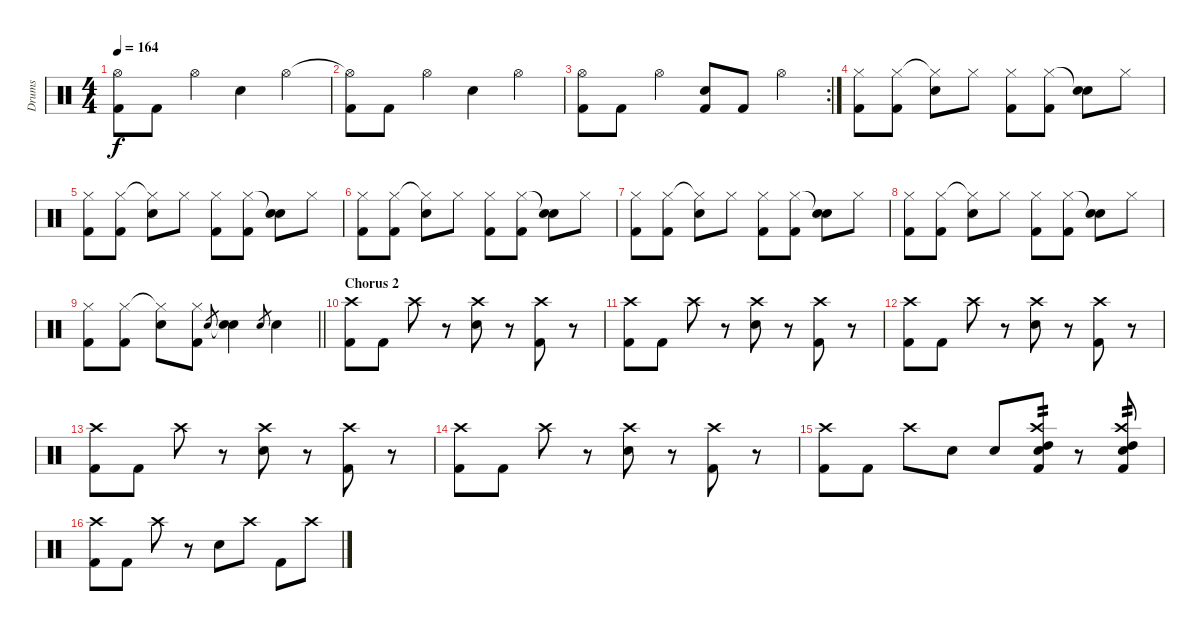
\track ("Drums" "Drums") {instrument percussion}
\staff {score}
\articulation defaults
\ts (4 4)
\tempo 164
\clef neutral
\ks c
("Hi-Hat (open)"{t} "Kick (hit) 2").8{dy f} "Kick (hit) 2".8 "Hi-Hat (open)".4 "Snare (hit) 2".4 "Hi-Hat (open)".4 |
("Hi-Hat (open)"{t} "Kick (hit) 2").8 "Kick (hit) 2".8 "Hi-Hat (open)".4 "Snare (hit) 2".4 "Hi-Hat (open)".4 |
\rc 2
("Hi-Hat (open)" "Kick (hit) 2").8 "Kick (hit) 2".8 "Hi-Hat (open)".4 ("Snare (hit) 2" "Kick (hit) 2").8 "Kick (hit) 2".8 "Hi-Hat (open)".4 |
("Hi-Hat (closed)" "Kick (hit) 2").8 ("Hi-Hat (closed)" "Kick (hit) 2").8 ("Hi-Hat (closed)"{t} "Snare (hit) 2").8 "Hi-Hat (closed)".8 ("Hi-Hat (closed)" "Kick (hit) 2").8 ("Hi-Hat (closed)" "Kick (hit) 2").8 ("Snare (hit)"{t} "Snare (hit) 2").8 "Hi-Hat (closed)".8 |
("Hi-Hat (closed)" "Kick (hit) 2").8 ("Hi-Hat (closed)" "Kick (hit) 2").8 ("Hi-Hat (closed)"{t} "Snare (hit) 2").8 "Hi-Hat (closed)".8 ("Hi-Hat (closed)" "Kick (hit) 2").8 ("Hi-Hat (closed)" "Kick (hit) 2").8 ("Snare (hit)"{t} "Snare (hit) 2").8 "Hi-Hat (closed)".8 |
("Hi-Hat (closed)" "Kick (hit) 2").8 ("Hi-Hat (closed)" "Kick (hit) 2").8 ("Hi-Hat (closed)"{t} "Snare (hit) 2").8 "Hi-Hat (closed)".8 ("Hi-Hat (closed)" "Kick (hit) 2").8 ("Hi-Hat (closed)" "Kick (hit) 2").8 ("Snare (hit)"{t} "Snare (hit) 2").8 "Hi-Hat (closed)".8 |
("Hi-Hat (closed)" "Kick (hit) 2").8 ("Hi-Hat (closed)" "Kick (hit) 2").8 ("Hi-Hat (closed)"{t} "Snare (hit) 2").8 "Hi-Hat (closed)".8 ("Hi-Hat (closed)" "Kick (hit) 2").8 ("Hi-Hat (closed)" "Kick (hit) 2").8 ("Snare (hit)"{t} "Snare (hit) 2").8 "Hi-Hat (closed)".8 |
("Hi-Hat (closed)" "Kick (hit) 2").8 ("Hi-Hat (closed)" "Kick (hit) 2").8 ("Hi-Hat (closed)"{t} "Snare (hit) 2").8 "Hi-Hat (closed)".8 ("Hi-Hat (closed)" "Kick (hit) 2").8 ("Hi-Hat (closed)" "Kick (hit) 2").8 ("Snare (hit)"{t} "Snare (hit) 2").8 "Hi-Hat (closed)".8 |
\barLineRight lightlight
("Hi-Hat (closed)" "Kick (hit) 2").8 ("Hi-Hat (closed)" "Kick (hit) 2").8 ("Hi-Hat (closed)"{t} "Snare (hit) 2").8 ("Hi-Hat (closed)" "Kick (hit) 2").8 "Snare (hit) 2".8{gr} ("Snare (hit)"{t} "Snare (hit) 2").4 "Snare (hit) 2".8{gr} "Snare (hit) 2".4 |
\section ("" "Chorus 2")
("Crash high (hit)" "Kick (hit) 2").8 "Kick (hit) 2".8 "Crash high (hit)".8 r.8 ("Crash high (hit)" "Electric Snare (hit)").8 r.8 ("Crash high (hit)" "Kick (hit) 2").8 r.8 |
("Crash high (hit)" "Kick (hit) 2").8 "Kick (hit) 2".8 "Crash high (hit)".8 r.8 ("Crash high (hit)" "Electric Snare (hit)").8 r.8 ("Crash high (hit)" "Kick (hit) 2").8 r.8 |
("Crash high (hit)" "Kick (hit) 2").8 "Kick (hit) 2".8 "Crash high (hit)".8 r.8 ("Crash high (hit)" "Electric Snare (hit)").8 r.8 ("Crash high (hit)" "Kick (hit) 2").8 r.8 |
("Crash high (hit)" "Kick (hit) 2").8 "Kick (hit) 2".8 "Crash high (hit)".8 r.8 ("Crash high (hit)" "Electric Snare (hit)").8 r.8 ("Crash high (hit)" "Kick (hit) 2").8 r.8 |
("Crash high (hit)" "Kick (hit) 2").8 "Kick (hit) 2".8 "Crash high (hit)".8 r.8 ("Crash high (hit)" "Electric Snare (hit)").8 r.8 ("Crash high (hit)" "Kick (hit) 2").8 r.8 |
("Crash high (hit)" "Kick (hit) 2").8 "Kick (hit) 2".8 "Crash high (hit)".8 "Electric Snare (hit)".8 "Snare (hit) 2".8 ("Crash high (hit)" "High Tom (hit)" "Snare (hit) 2" "Kick (hit) 2").8{tp 2} r.8 ("Crash high (hit)" "High Tom (hit)" "Electric Snare (hit)" "Kick (hit) 2").8{tp 2} |
("Crash high (hit)" "Kick (hit) 2").8 "Kick (hit) 2".8 "Crash high (hit)".8 r.8 "Electric Snare (hit)".8 "Crash high (hit)".8 "Kick (hit) 2".8 "Crash high (hit)".8
